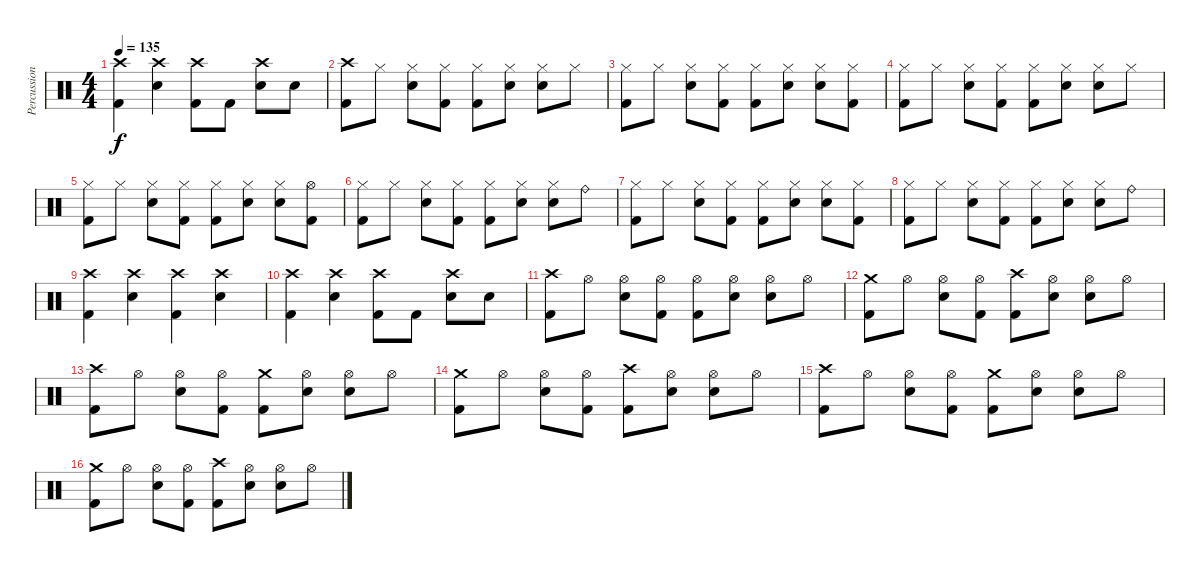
\track ("Percussion" "Percussion") {instrument percussion}
\staff {score}
\articulation defaults
\ts (4 4)
\tempo 135
\clef neutral
\ks c
("Crash high (hit)" "Kick (hit) 2").4{dy f} ("Crash high (hit)" "Snare (hit) 2").4 ("Crash high (hit)" "Kick (hit) 2").8 "Kick (hit) 2".8 ("Crash high (hit)" "Snare (hit) 2").8 "Snare (hit) 2".8 |
("Crash high (hit)" "Kick (hit) 2").8 "Hi-Hat (closed)".8 ("Hi-Hat (closed)" "Snare (hit) 2").8 ("Hi-Hat (closed)" "Kick (hit) 2").8 ("Hi-Hat (closed)" "Kick (hit) 2").8 ("Hi-Hat (closed)" "Snare (hit) 2").8 ("Hi-Hat (closed)" "Snare (hit) 2").8 "Hi-Hat (closed)".8 |
("Hi-Hat (closed)" "Kick (hit) 2").8 "Hi-Hat (closed)".8 ("Hi-Hat (closed)" "Snare (hit) 2").8 ("Hi-Hat (closed)" "Kick (hit) 2").8 ("Hi-Hat (closed)" "Kick (hit) 2").8 ("Hi-Hat (closed)" "Snare (hit) 2").8 ("Hi-Hat (closed)" "Snare (hit) 2").8 ("Hi-Hat (closed)" "Kick (hit) 2").8 |
("Hi-Hat (closed)" "Kick (hit) 2").8 "Hi-Hat (closed)".8 ("Hi-Hat (closed)" "Snare (hit) 2").8 ("Hi-Hat (closed)" "Kick (hit) 2").8 ("Hi-Hat (closed)" "Kick (hit) 2").8 ("Hi-Hat (closed)" "Snare (hit) 2").8 ("Hi-Hat (closed)" "Snare (hit) 2").8 "Hi-Hat (closed)".8 |
("Hi-Hat (closed)" "Kick (hit) 2").8 "Hi-Hat (closed)".8 ("Hi-Hat (closed)" "Snare (hit) 2").8 ("Hi-Hat (closed)" "Kick (hit) 2").8 ("Hi-Hat (closed)" "Kick (hit) 2").8 ("Hi-Hat (closed)" "Snare (hit) 2").8 ("Hi-Hat (closed)" "Snare (hit) 2").8 ("Hi-Hat (open)" "Kick (hit) 2").8 |
("Hi-Hat (closed)" "Kick (hit) 2").8 "Hi-Hat (closed)".8 ("Hi-Hat (closed)" "Snare (hit) 2").8 ("Hi-Hat (closed)" "Kick (hit) 2").8 ("Hi-Hat (closed)" "Kick (hit) 2").8 ("Hi-Hat (closed)" "Snare (hit) 2").8 ("Hi-Hat (closed)" "Snare (hit) 2").8 "Ride (bell)".8 |
("Hi-Hat (closed)" "Kick (hit) 2").8 "Hi-Hat (closed)".8 ("Hi-Hat (closed)" "Snare (hit) 2").8 ("Hi-Hat (closed)" "Kick (hit) 2").8 ("Hi-Hat (closed)" "Kick (hit) 2").8 ("Hi-Hat (closed)" "Snare (hit) 2").8 ("Hi-Hat (closed)" "Snare (hit) 2").8 ("Hi-Hat (closed)" "Kick (hit) 2").8 |
("Hi-Hat (closed)" "Kick (hit) 2").8 "Hi-Hat (closed)".8 ("Hi-Hat (closed)" "Snare (hit) 2").8 ("Hi-Hat (closed)" "Kick (hit) 2").8 ("Hi-Hat (closed)" "Kick (hit) 2").8 ("Hi-Hat (closed)" "Snare (hit) 2").8 ("Hi-Hat (closed)" "Snare (hit) 2").8 "Ride (bell)".8 |
("Crash high (hit)" "Kick (hit) 2").4 ("Crash high (hit)" "Snare (hit) 2").4 ("Crash high (hit)" "Kick (hit) 2").4 ("Crash high (hit)" "Snare (hit) 2").4 |
("Crash high (hit)" "Kick (hit) 2").4 ("Crash high (hit)" "Snare (hit) 2").4 ("Crash high (hit)" "Kick (hit) 2").8 "Kick (hit) 2".8 ("Crash high (hit)" "Snare (hit) 2").8 "Snare (hit) 2".8 |
("Crash high (hit)" "Kick (hit) 2").8 "Hi-Hat (open)".8 ("Hi-Hat (open)" "Snare (hit) 2").8 ("Hi-Hat (open)" "Kick (hit) 2").8 ("Hi-Hat (open)" "Kick (hit) 2").8 ("Hi-Hat (open)" "Snare (hit) 2").8 ("Hi-Hat (open)" "Snare (hit) 2").8 "Hi-Hat (open)".8 |
("Crash medium (hit)" "Kick (hit) 2").8 "Hi-Hat (open)".8 ("Hi-Hat (open)" "Snare (hit) 2").8 ("Hi-Hat (open)" "Kick (hit) 2").8 ("Crash high (hit)" "Kick (hit) 2").8 ("Hi-Hat (open)" "Snare (hit) 2").8 ("Hi-Hat (open)" "Snare (hit) 2").8 "Hi-Hat (open)".8 |
("Crash high (hit)" "Kick (hit) 2").8 "Hi-Hat (open)".8 ("Hi-Hat (open)" "Snare (hit) 2").8 ("Hi-Hat (open)" "Kick (hit) 2").8 ("Crash medium (hit)" "Kick (hit) 2").8 ("Hi-Hat (open)" "Snare (hit) 2").8 ("Hi-Hat (open)" "Snare (hit) 2").8 "Hi-Hat (open)".8 |
("Crash medium (hit)" "Kick (hit) 2").8 "Hi-Hat (open)".8 ("Hi-Hat (open)" "Snare (hit) 2").8 ("Hi-Hat (open)" "Kick (hit) 2").8 ("Crash high (hit)" "Kick (hit) 2").8 ("Hi-Hat (open)" "Snare (hit) 2").8 ("Hi-Hat (open)" "Snare (hit) 2").8 "Hi-Hat (open)".8 |
("Crash high (hit)" "Kick (hit) 2").8 "Hi-Hat (open)".8 ("Hi-Hat (open)" "Snare (hit) 2").8 ("Hi-Hat (open)" "Kick (hit) 2").8 ("Crash medium (hit)" "Kick (hit) 2").8 ("Hi-Hat (open)" "Snare (hit) 2").8 ("Hi-Hat (open)" "Snare (hit) 2").8 "Hi-Hat (open)".8 |
("Crash medium (hit)" "Kick (hit) 2").8 "Hi-Hat (open)".8 ("Hi-Hat (open)" "Snare (hit) 2").8 ("Hi-Hat (open)" "Kick (hit) 2").8 ("Crash high (hit)" "Kick (hit) 2").8 ("Hi-Hat (open)" "Snare (hit) 2").8 ("Hi-Hat (open)" "Snare (hit) 2").8 "Hi-Hat (open)".8
